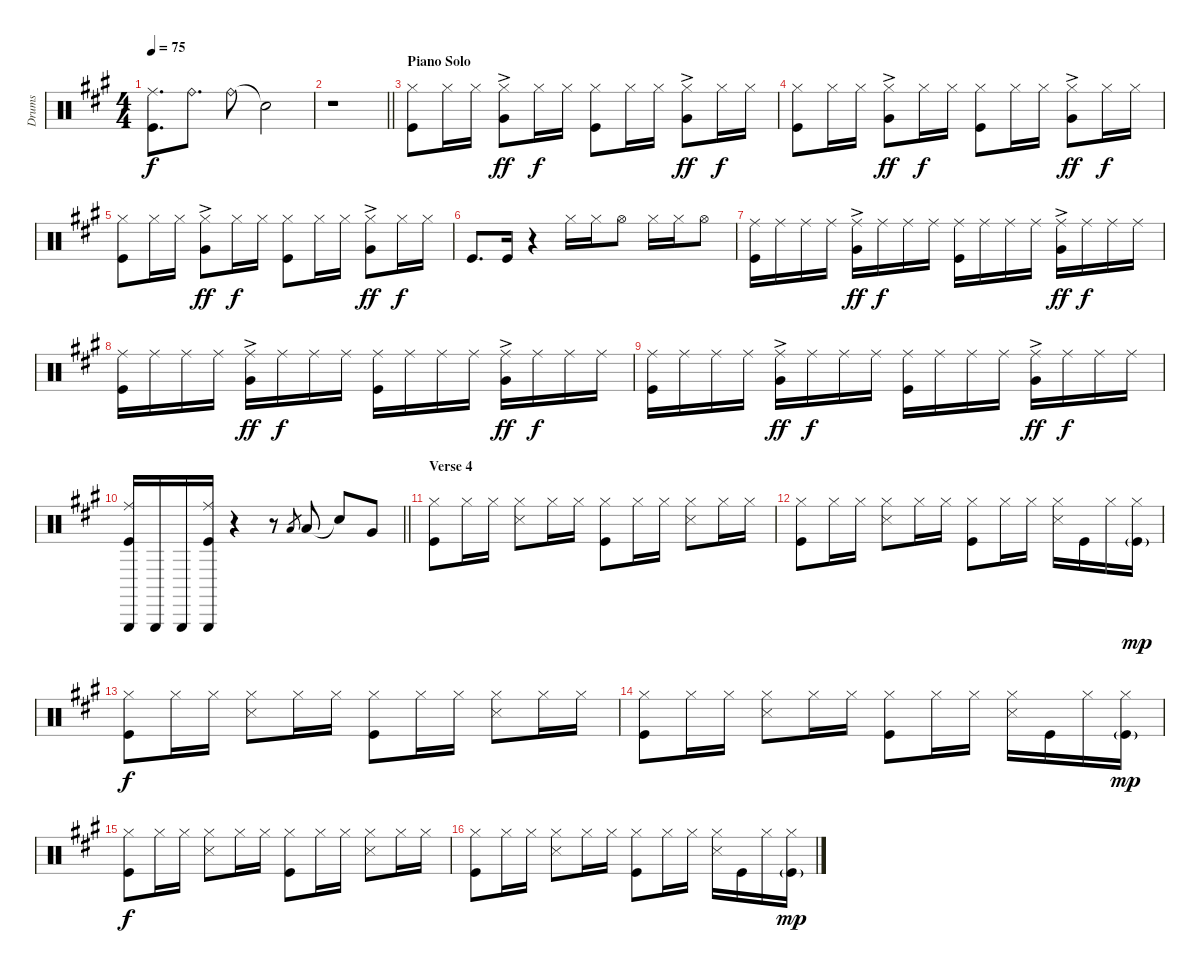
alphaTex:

\track ("Drums" "Drums") {instrument percussion}
\staff {score}
\articulation defaults
\ts (4 4)
\tempo 75
\clef neutral
\ks f#minor
("Ride (middle)" "Kick (hit)").8{d dy f} "Ride (bell)".8{d} "Ride (bell)".8 "Snare (hit)"{t}.2 |
\barLineRight lightlight
r.1 |
\section ("" "Piano Solo")
("Hi-Hat (closed)" "Kick (hit)").8 "Hi-Hat (closed)".16 "Hi-Hat (closed)".16 ("Hi-Hat (closed)" "Very Low Tom (hit)"{ac}).8{dy ff} "Hi-Hat (closed)".16{dy f} "Hi-Hat (closed)".16 ("Hi-Hat (closed)" "Kick (hit)").8 "Hi-Hat (closed)".16 "Hi-Hat (closed)".16 ("Hi-Hat (closed)" "Very Low Tom (hit)"{ac}).8{dy ff} "Hi-Hat (closed)".16{dy f} "Hi-Hat (closed)".16 |
("Hi-Hat (closed)" "Kick (hit)").8 "Hi-Hat (closed)".16 "Hi-Hat (closed)".16 ("Hi-Hat (closed)" "Very Low Tom (hit)"{ac}).8{dy ff} "Hi-Hat (closed)".16{dy f} "Hi-Hat (closed)".16 ("Hi-Hat (closed)" "Kick (hit)").8 "Hi-Hat (closed)".16 "Hi-Hat (closed)".16 ("Hi-Hat (closed)" "Very Low Tom (hit)"{ac}).8{dy ff} "Hi-Hat (closed)".16{dy f} "Hi-Hat (closed)".16 |
("Hi-Hat (closed)" "Kick (hit)").8 "Hi-Hat (closed)".16 "Hi-Hat (closed)".16 ("Hi-Hat (closed)" "Very Low Tom (hit)"{ac}).8{dy ff} "Hi-Hat (closed)".16{dy f} "Hi-Hat (closed)".16 ("Hi-Hat (closed)" "Kick (hit)").8 "Hi-Hat (closed)".16 "Hi-Hat (closed)".16 ("Hi-Hat (closed)" "Very Low Tom (hit)"{ac}).8{dy ff} "Hi-Hat (closed)".16{dy f} "Hi-Hat (closed)".16 |
"Kick (hit)".8{d} "Kick (hit)".16 r.4 "Hi-Hat (closed)".16 "Hi-Hat (closed)".16 "Hi-Hat (open)".8 "Hi-Hat (closed)".16 "Hi-Hat (closed)".16 "Hi-Hat (open)".8 |
("Ride (middle)" "Kick (hit)").16 "Ride (middle)".16 "Ride (middle)".16 "Ride (middle)".16 ("Ride (middle)" "Very Low Tom (hit)"{ac}).16{dy ff} "Ride (middle)".16{dy f} "Ride (middle)".16 "Ride (middle)".16 ("Ride (middle)" "Kick (hit)").16 "Ride (middle)".16 "Ride (middle)".16 "Ride (middle)".16 ("Ride (middle)" "Very Low Tom (hit)"{ac}).16{dy ff} "Ride (middle)".16{dy f} "Ride (middle)".16 "Ride (middle)".16 |
("Ride (middle)" "Kick (hit)").16 "Ride (middle)".16 "Ride (middle)".16 "Ride (middle)".16 ("Ride (middle)" "Very Low Tom (hit)"{ac}).16{dy ff} "Ride (middle)".16{dy f} "Ride (middle)".16 "Ride (middle)".16 ("Ride (middle)" "Kick (hit)").16 "Ride (middle)".16 "Ride (middle)".16 "Ride (middle)".16 ("Ride (middle)" "Very Low Tom (hit)"{ac}).16{dy ff} "Ride (middle)".16{dy f} "Ride (middle)".16 "Ride (middle)".16 |
("Ride (middle)" "Kick (hit)").16 "Ride (middle)".16 "Ride (middle)".16 "Ride (middle)".16 ("Ride (middle)" "Very Low Tom (hit)"{ac}).16{dy ff} "Ride (middle)".16{dy f} "Ride (middle)".16 "Ride (middle)".16 ("Ride (middle)" "Kick (hit)").16 "Ride (middle)".16 "Ride (middle)".16 "Ride (middle)".16 ("Ride (middle)" "Very Low Tom (hit)"{ac}).16{dy ff} "Ride (middle)".16{dy f} "Ride (middle)".16 "Ride (middle)".16 |
\barLineRight lightlight
("Triangle (hit)" "Ride (middle)" "Kick (hit)").16 "Triangle (hit)".16 "Triangle (hit)".16 ("Triangle (hit)" "Ride (middle)" "Kick (hit)").16 r.4 r.8 "Low Tom (hit)".8{gr} "Low Tom (hit)".8 "Snare (hit)"{t}.8 "Very Low Tom (hit)".8 |
\section ("" "Verse 4")
("Hi-Hat (closed)" "Kick (hit)").8 "Hi-Hat (closed)".16 "Hi-Hat (closed)".16 ("Hi-Hat (closed)" "Snare (side stick) 3").8 "Hi-Hat (closed)".16 "Hi-Hat (closed)".16 ("Hi-Hat (closed)" "Kick (hit)").8 "Hi-Hat (closed)".16 "Hi-Hat (closed)".16 ("Hi-Hat (closed)" "Snare (side stick) 3").8 "Hi-Hat (closed)".16 "Hi-Hat (closed)".16 |
("Hi-Hat (closed)" "Kick (hit)").8 "Hi-Hat (closed)".16 "Hi-Hat (closed)".16 ("Hi-Hat (closed)" "Snare (side stick) 3").8 "Hi-Hat (closed)".16 "Hi-Hat (closed)".16 ("Hi-Hat (closed)" "Kick (hit)").8 "Hi-Hat (closed)".16 "Hi-Hat (closed)".16 ("Hi-Hat (closed)" "Snare (side stick) 3").16 "Kick (hit)".16 "Hi-Hat (closed)".16 ("Hi-Hat (closed)" "Kick (hit)"{g}).16{dy mp} |
("Hi-Hat (closed)" "Kick (hit)").8{dy f} "Hi-Hat (closed)".16 "Hi-Hat (closed)".16 ("Hi-Hat (closed)" "Snare (side stick) 3").8 "Hi-Hat (closed)".16 "Hi-Hat (closed)".16 ("Hi-Hat (closed)" "Kick (hit)").8 "Hi-Hat (closed)".16 "Hi-Hat (closed)".16 ("Hi-Hat (closed)" "Snare (side stick) 3").8 "Hi-Hat (closed)".16 "Hi-Hat (closed)".16 |
("Hi-Hat (closed)" "Kick (hit)").8 "Hi-Hat (closed)".16 "Hi-Hat (closed)".16 ("Hi-Hat (closed)" "Snare (side stick) 3").8 "Hi-Hat (closed)".16 "Hi-Hat (closed)".16 ("Hi-Hat (closed)" "Kick (hit)").8 "Hi-Hat (closed)".16 "Hi-Hat (closed)".16 ("Hi-Hat (closed)" "Snare (side stick) 3").16 "Kick (hit)".16 "Hi-Hat (closed)".16 ("Hi-Hat (closed)" "Kick (hit)"{g}).16{dy mp} |
("Hi-Hat (closed)" "Kick (hit)").8{dy f} "Hi-Hat (closed)".16 "Hi-Hat (closed)".16 ("Hi-Hat (closed)" "Snare (side stick) 3").8 "Hi-Hat (closed)".16 "Hi-Hat (closed)".16 ("Hi-Hat (closed)" "Kick (hit)").8 "Hi-Hat (closed)".16 "Hi-Hat (closed)".16 ("Hi-Hat (closed)" "Snare (side stick) 3").8 "Hi-Hat (closed)".16 "Hi-Hat (closed)".16 |
("Hi-Hat (closed)" "Kick (hit)").8 "Hi-Hat (closed)".16 "Hi-Hat (closed)".16 ("Hi-Hat (closed)" "Snare (side stick) 3").8 "Hi-Hat (closed)".16 "Hi-Hat (closed)".16 ("Hi-Hat (closed)" "Kick (hit)").8 "Hi-Hat (closed)".16 "Hi-Hat (closed)".16 ("Hi-Hat (closed)" "Snare (side stick) 3").16 "Kick (hit)".16 "Hi-Hat (closed)".16 ("Hi-Hat (closed)" "Kick (hit)"{g}).16{dy mp}
